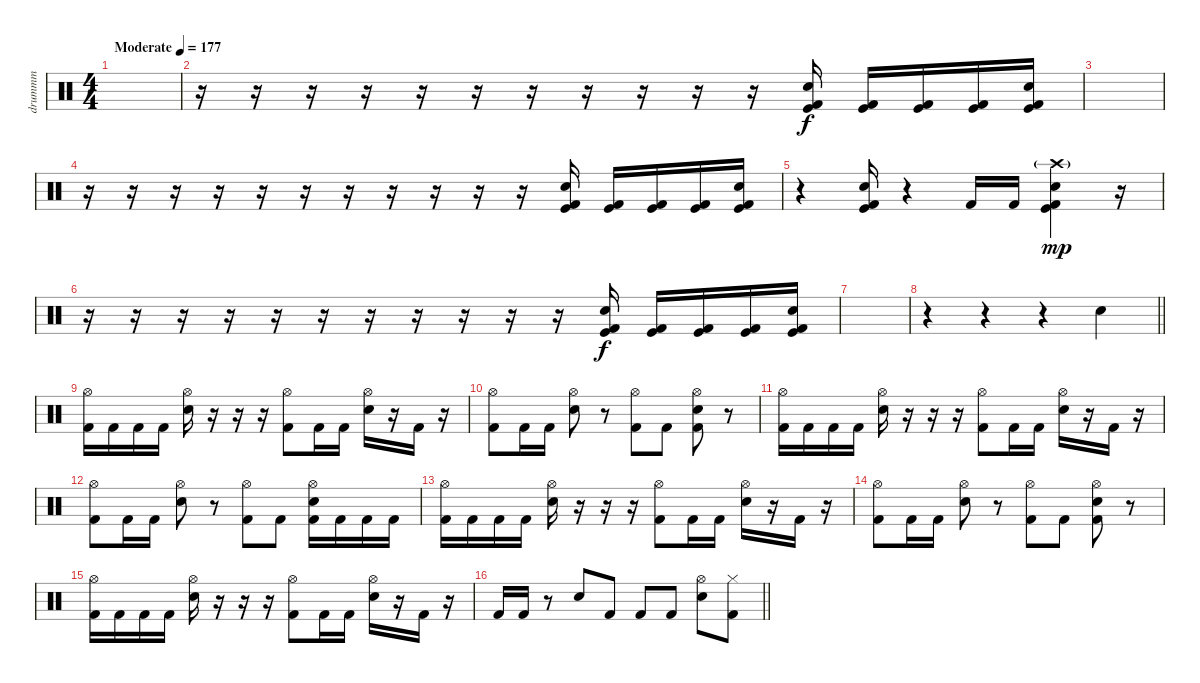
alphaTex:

\track ("drummm" "drummm") {instrument percussion}
\staff {score}
\articulation defaults
\ts (4 4)
\tempo (177 "Moderate")
\clef neutral
\ks c
|
r.16 r.16 r.16 r.16 r.16 r.16 r.16 r.16 r.16 r.16 r.16 ("Snare (hit) 2" "Kick (hit) 2" "Kick (hit)").16 ("Kick (hit) 2" "Kick (hit)").16 ("Kick (hit) 2" "Kick (hit)").16 ("Kick (hit) 2" "Kick (hit)").16 ("Snare (hit) 2" "Kick (hit) 2" "Kick (hit)").16 |
|
r.16 r.16 r.16 r.16 r.16 r.16 r.16 r.16 r.16 r.16 r.16 ("Snare (hit) 2" "Kick (hit) 2" "Kick (hit)").16 ("Kick (hit) 2" "Kick (hit)").16 ("Kick (hit) 2" "Kick (hit)").16 ("Kick (hit) 2" "Kick (hit)").16 ("Snare (hit) 2" "Kick (hit) 2" "Kick (hit)").16 |
r.4 ("Snare (hit) 2" "Kick (hit) 2" "Kick (hit)").16 r.4 "Kick (hit) 2".16 "Kick (hit) 2".16 ("Crash high (hit)"{g} "Snare (hit) 2" "Kick (hit) 2" "Kick (hit)").4{dy mp} r.16 |
r.16 r.16 r.16 r.16 r.16 r.16 r.16 r.16 r.16 r.16 r.16 ("Snare (hit) 2" "Kick (hit) 2" "Kick (hit)").16{dy f} ("Kick (hit) 2" "Kick (hit)").16 ("Kick (hit) 2" "Kick (hit)").16 ("Kick (hit) 2" "Kick (hit)").16 ("Snare (hit) 2" "Kick (hit) 2" "Kick (hit)").16 |
|
\barLineRight lightlight
r.4 r.4 r.4 "Snare (hit) 2".4 |
("Hi-Hat (open)" "Kick (hit) 2").16 "Kick (hit) 2".16 "Kick (hit) 2".16 "Kick (hit) 2".16 ("Hi-Hat (open)" "Snare (hit) 2").16 r.16 r.16 r.16 ("Hi-Hat (open)" "Kick (hit) 2").8 "Kick (hit) 2".16 "Kick (hit) 2".16 ("Hi-Hat (open)" "Snare (hit) 2").16 r.16 "Kick (hit) 2".16 r.16 |
("Hi-Hat (open)" "Kick (hit) 2").8 "Kick (hit) 2".16 "Kick (hit) 2".16 ("Hi-Hat (open)" "Snare (hit) 2").8 r.8 ("Hi-Hat (open)" "Kick (hit) 2").8 "Kick (hit) 2".8 ("Hi-Hat (open)" "Snare (hit) 2" "Kick (hit) 2").8 r.8 |
("Hi-Hat (open)" "Kick (hit) 2").16 "Kick (hit) 2".16 "Kick (hit) 2".16 "Kick (hit) 2".16 ("Hi-Hat (open)" "Snare (hit) 2").16 r.16 r.16 r.16 ("Hi-Hat (open)" "Kick (hit) 2").8 "Kick (hit) 2".16 "Kick (hit) 2".16 ("Hi-Hat (open)" "Snare (hit) 2").16 r.16 "Kick (hit) 2".16 r.16 |
("Hi-Hat (open)" "Kick (hit) 2").8 "Kick (hit) 2".16 "Kick (hit) 2".16 ("Hi-Hat (open)" "Snare (hit) 2").8 r.8 ("Hi-Hat (open)" "Kick (hit) 2").8 "Kick (hit) 2".8 ("Hi-Hat (open)" "Snare (hit) 2" "Kick (hit) 2").16 "Kick (hit) 2".16 "Kick (hit) 2".16 "Kick (hit) 2".16 |
("Hi-Hat (open)" "Kick (hit) 2").16 "Kick (hit) 2".16 "Kick (hit) 2".16 "Kick (hit) 2".16 ("Hi-Hat (open)" "Snare (hit) 2").16 r.16 r.16 r.16 ("Hi-Hat (open)" "Kick (hit) 2").8 "Kick (hit) 2".16 "Kick (hit) 2".16 ("Hi-Hat (open)" "Snare (hit) 2").16 r.16 "Kick (hit) 2".16 r.16 |
("Hi-Hat (open)" "Kick (hit) 2").8 "Kick (hit) 2".16 "Kick (hit) 2".16 ("Hi-Hat (open)" "Snare (hit) 2").8 r.8 ("Hi-Hat (open)" "Kick (hit) 2").8 "Kick (hit) 2".8 ("Hi-Hat (open)" "Snare (hit) 2" "Kick (hit) 2").8 r.8 |
("Hi-Hat (open)" "Kick (hit) 2").16 "Kick (hit) 2".16 "Kick (hit) 2".16 "Kick (hit) 2".16 ("Hi-Hat (open)" "Snare (hit) 2").16 r.16 r.16 r.16 ("Hi-Hat (open)" "Kick (hit) 2").8 "Kick (hit) 2".16 "Kick (hit) 2".16 ("Hi-Hat (open)" "Snare (hit) 2").16 r.16 "Kick (hit) 2".16 r.16 |
\barLineRight lightlight "Kick (hit) 2".16 "Kick (hit) 2".16
r.8 "Snare (hit) 2".8 "Kick (hit) 2".8 "Kick (hit) 2".8 "Kick (hit) 2".8 ("Hi-Hat (open)" "Snare (hit) 2").8 ("Hi-Hat (closed)" "Kick (hit) 2").8
